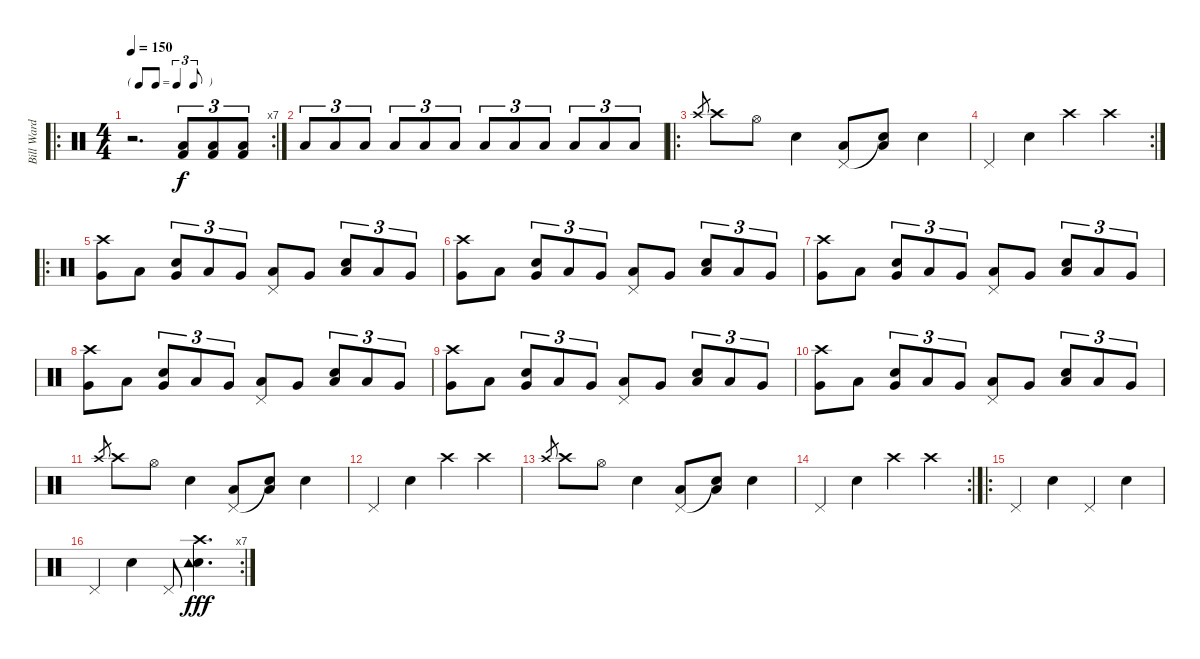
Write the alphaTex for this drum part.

\track ("Bill Ward" "Bill Ward") {instrument percussion}
\staff {score}
\articulation defaults
\ro
\rc 7
\ts (4 4)
\tf triplet8th
\tempo 150
\clef neutral
\ks c
r.2{d dy f} ("Kick (hit) 2" "Low Floor Tom (hit)").8{tu (3 2) volume 6} ("Kick (hit) 2" "Low Floor Tom (hit)").8{tu (3 2)} ("Kick (hit) 2" "Low Floor Tom (hit)").8{tu (3 2)} |
"Low Floor Tom (hit)".8{tu (3 2) volume 16} "Low Floor Tom (hit)".8{tu (3 2)} "Low Floor Tom (hit)".8{tu (3 2)} "Low Floor Tom (hit)".8{tu (3 2)} "Low Floor Tom (hit)".8{tu (3 2)} "Low Floor Tom (hit)".8{tu (3 2)} "Low Floor Tom (hit)".8{tu (3 2)} "Low Floor Tom (hit)".8{tu (3 2)} "Low Floor Tom (hit)".8{tu (3 2)} "Low Floor Tom (hit)".8{tu (3 2)} "Low Floor Tom (hit)".8{tu (3 2)} "Low Floor Tom (hit)".8{tu (3 2)} |
\ro "Crash high (hit)".8{gr} "Crash high (hit)".8 "Hi-Hat (open)".8 "Snare (hit) 2".4
("Low Floor Tom (hit)" "Pedal Hi-Hat (hit)").8 ("Low Floor Tom (hit)" "Snare (hit)"{t}).8 "Snare (hit) 2".4 |
\rc 2 "Pedal Hi-Hat (hit)".4 "Snare (hit) 2".4 "Crash high (hit)".4 "Crash high (hit)".4
|
\ro
("Crash high (hit)" "Very Low Tom (hit)").8 "Low Tom (hit)".8 ("Snare (hit) 2" "Very Low Tom (hit)").8{tu (3 2)} "Low Tom (hit)".8{tu (3 2)} "Very Low Tom (hit)".8{tu (3 2)} ("Pedal Hi-Hat (hit)" "Low Tom (hit)").8 "Very Low Tom (hit)".8 ("Snare (hit) 2" "Low Tom (hit)").8{tu (3 2)} "Low Tom (hit)".8{tu (3 2)} "Very Low Tom (hit)".8{tu (3 2)} |
("Crash high (hit)" "Very Low Tom (hit)").8 "Low Tom (hit)".8 ("Snare (hit) 2" "Very Low Tom (hit)").8{tu (3 2)} "Low Tom (hit)".8{tu (3 2)} "Very Low Tom (hit)".8{tu (3 2)} ("Pedal Hi-Hat (hit)" "Low Tom (hit)").8 "Very Low Tom (hit)".8 ("Snare (hit) 2" "Low Tom (hit)").8{tu (3 2)} "Low Tom (hit)".8{tu (3 2)} "Very Low Tom (hit)".8{tu (3 2)} |
("Crash high (hit)" "Very Low Tom (hit)").8 "Low Tom (hit)".8 ("Snare (hit) 2" "Very Low Tom (hit)").8{tu (3 2)} "Low Tom (hit)".8{tu (3 2)} "Very Low Tom (hit)".8{tu (3 2)} ("Pedal Hi-Hat (hit)" "Low Tom (hit)").8 "Very Low Tom (hit)".8 ("Snare (hit) 2" "Low Tom (hit)").8{tu (3 2)} "Low Tom (hit)".8{tu (3 2)} "Very Low Tom (hit)".8{tu (3 2)} |
("Crash high (hit)" "Very Low Tom (hit)").8 "Low Tom (hit)".8 ("Snare (hit) 2" "Very Low Tom (hit)").8{tu (3 2)} "Low Tom (hit)".8{tu (3 2)} "Very Low Tom (hit)".8{tu (3 2)} ("Pedal Hi-Hat (hit)" "Low Tom (hit)").8 "Very Low Tom (hit)".8 ("Snare (hit) 2" "Low Tom (hit)").8{tu (3 2)} "Low Tom (hit)".8{tu (3 2)} "Very Low Tom (hit)".8{tu (3 2)} |
("Crash high (hit)" "Very Low Tom (hit)").8 "Low Tom (hit)".8 ("Snare (hit) 2" "Very Low Tom (hit)").8{tu (3 2)} "Low Tom (hit)".8{tu (3 2)} "Very Low Tom (hit)".8{tu (3 2)} ("Pedal Hi-Hat (hit)" "Low Tom (hit)").8 "Very Low Tom (hit)".8 ("Snare (hit) 2" "Low Tom (hit)").8{tu (3 2)} "Low Tom (hit)".8{tu (3 2)} "Very Low Tom (hit)".8{tu (3 2)} |
("Crash high (hit)" "Very Low Tom (hit)").8 "Low Tom (hit)".8 ("Snare (hit) 2" "Very Low Tom (hit)").8{tu (3 2)} "Low Tom (hit)".8{tu (3 2)} "Very Low Tom (hit)".8{tu (3 2)} ("Pedal Hi-Hat (hit)" "Low Tom (hit)").8 "Very Low Tom (hit)".8 ("Snare (hit) 2" "Low Tom (hit)").8{tu (3 2)} "Low Tom (hit)".8{tu (3 2)} "Very Low Tom (hit)".8{tu (3 2)} |
"Crash high (hit)".8{gr} "Crash high (hit)".8 "Hi-Hat (open)".8 "Snare (hit) 2".4 ("Low Floor Tom (hit)" "Pedal Hi-Hat (hit)").8 ("Low Floor Tom (hit)" "Snare (hit)"{t}).8 "Snare (hit) 2".4 |
"Pedal Hi-Hat (hit)".4 "Snare (hit) 2".4 "Crash high (hit)".4 "Crash high (hit)".4 |
"Crash high (hit)".8{gr} "Crash high (hit)".8 "Hi-Hat (open)".8 "Snare (hit) 2".4 ("Low Floor Tom (hit)" "Pedal Hi-Hat (hit)").8 ("Low Floor Tom (hit)" "Snare (hit)"{t}).8 "Snare (hit) 2".4 |
\rc 2 "Pedal Hi-Hat (hit)".4 "Snare (hit) 2".4 "Crash high (hit)".4 "Crash high (hit)".4
|
\ro "Pedal Hi-Hat (hit)".4 "Snare (hit) 2".4 "Pedal Hi-Hat (hit)".4 "Snare (hit) 2".4
|
\rc 7 "Pedal Hi-Hat (hit)".4 "Snare (hit) 2".4 "Pedal Hi-Hat (hit)".8
("Snare (hit) 2" "Crash high (hit)" "Tambourine (hit)").4{d dy fff}
